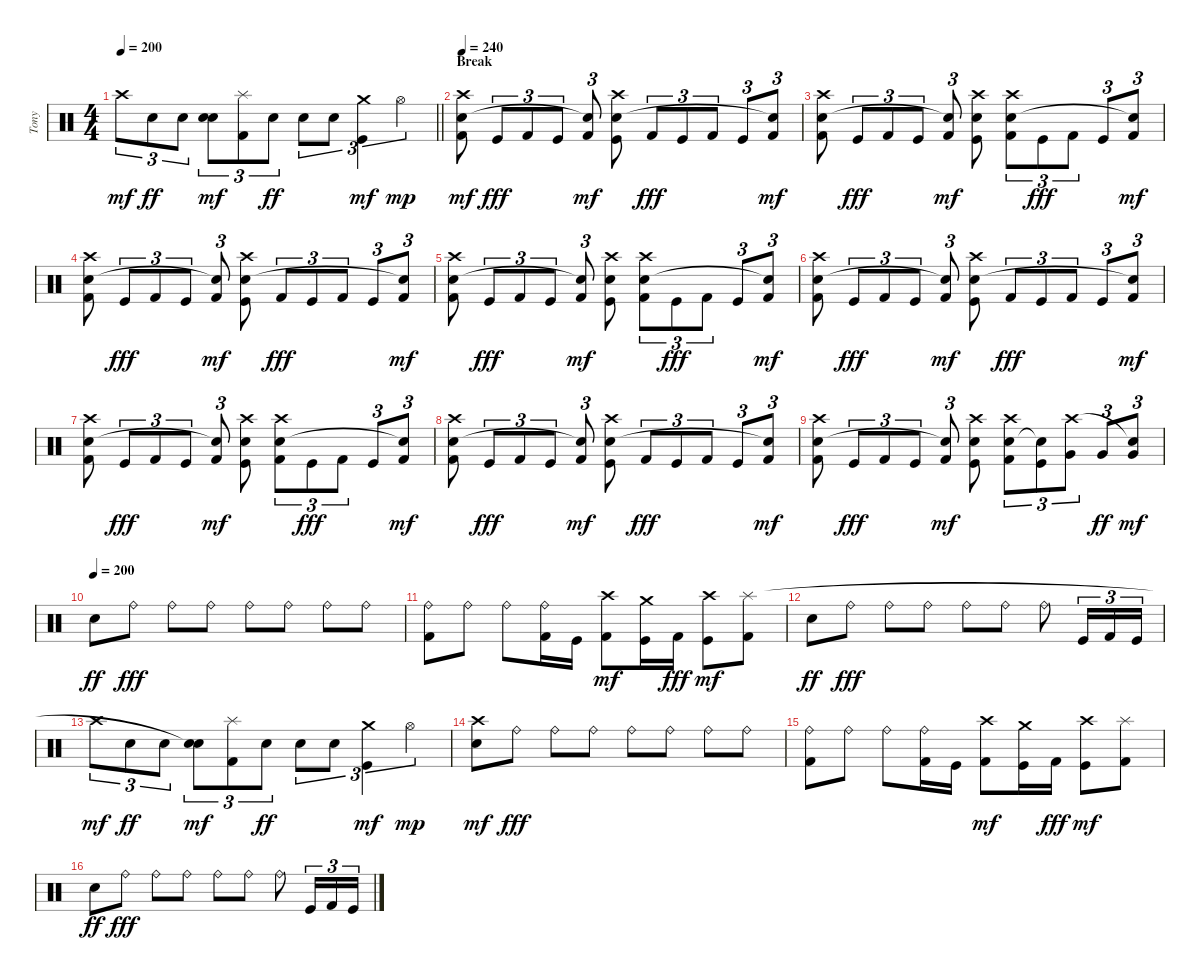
\track ("Tony" "Tony") {instrument percussion}
\staff {score}
\articulation defaults
\ts (4 4)
\tempo 200
\clef neutral
\barLineRight lightlight
\ks c "Crash high (hit)".8{tu (3 2) dy mf} "Snare (hit) 2".8{tu (3 2) dy ff} "Snare (hit) 2".8{tu (3 2)}
("Snare (hit) 2" "Snare (hit)"{t}).8{tu (3 2) dy mf} ("Kick (hit) 2" "Splash (hit)").8{tu (3 2)} "Snare (hit) 2".8{tu (3 2) dy ff} "Snare (hit) 2".8{tu (3 2)} "Snare (hit) 2".8{tu (3 2)} ("Kick (hit)" "Crash medium (hit)").4{tu (3 2) dy mf} "Hi-Hat (open)".4{tu (3 2) dy mp} |
\section ("" "Break")
\tempo 240
("Kick (hit) 2" "Snare (hit) 2" "Crash high (hit)").8{dy mf} "Kick (hit)".8{tu (3 2) dy fff} "Kick (hit) 2".8{tu (3 2)} "Kick (hit)".8{tu (3 2)} ("Kick (hit) 2" "Snare (hit)"{t}).8{tu (3 2) dy mf} ("Kick (hit)" "Snare (hit) 2" "Crash high (hit)").8 "Kick (hit) 2".8{tu (3 2) dy fff} "Kick (hit)".8{tu (3 2)} "Kick (hit) 2".8{tu (3 2)} "Kick (hit)".8{tu (3 2)} ("Kick (hit) 2" "Snare (hit)"{t}).8{tu (3 2) dy mf} |
("Kick (hit) 2" "Snare (hit) 2" "Crash high (hit)").8 "Kick (hit)".8{tu (3 2) dy fff} "Kick (hit) 2".8{tu (3 2)} "Kick (hit)".8{tu (3 2)} ("Kick (hit) 2" "Snare (hit)"{t}).8{tu (3 2) dy mf} ("Kick (hit)" "Snare (hit) 2" "Crash high (hit)").8 ("Kick (hit) 2" "Snare (hit) 2" "Crash high (hit)").8{tu (3 2)} "Kick (hit)".8{tu (3 2) dy fff} "Kick (hit) 2".8{tu (3 2)} "Kick (hit)".8{tu (3 2)} ("Kick (hit) 2" "Snare (hit)"{t}).8{tu (3 2) dy mf} |
("Kick (hit) 2" "Snare (hit) 2" "Crash high (hit)").8 "Kick (hit)".8{tu (3 2) dy fff} "Kick (hit) 2".8{tu (3 2)} "Kick (hit)".8{tu (3 2)} ("Kick (hit) 2" "Snare (hit)"{t}).8{tu (3 2) dy mf} ("Kick (hit)" "Snare (hit) 2" "Crash high (hit)").8 "Kick (hit) 2".8{tu (3 2) dy fff} "Kick (hit)".8{tu (3 2)} "Kick (hit) 2".8{tu (3 2)} "Kick (hit)".8{tu (3 2)} ("Kick (hit) 2" "Snare (hit)"{t}).8{tu (3 2) dy mf} |
("Kick (hit) 2" "Snare (hit) 2" "Crash high (hit)").8 "Kick (hit)".8{tu (3 2) dy fff} "Kick (hit) 2".8{tu (3 2)} "Kick (hit)".8{tu (3 2)} ("Kick (hit) 2" "Snare (hit)"{t}).8{tu (3 2) dy mf} ("Kick (hit)" "Snare (hit) 2" "Crash high (hit)").8 ("Kick (hit) 2" "Snare (hit) 2" "Crash high (hit)").8{tu (3 2)} "Kick (hit)".8{tu (3 2) dy fff} "Kick (hit) 2".8{tu (3 2)} "Kick (hit)".8{tu (3 2)} ("Kick (hit) 2" "Snare (hit)"{t}).8{tu (3 2) dy mf} |
("Kick (hit) 2" "Snare (hit) 2" "Crash high (hit)").8 "Kick (hit)".8{tu (3 2) dy fff} "Kick (hit) 2".8{tu (3 2)} "Kick (hit)".8{tu (3 2)} ("Kick (hit) 2" "Snare (hit)"{t}).8{tu (3 2) dy mf} ("Kick (hit)" "Snare (hit) 2" "Crash high (hit)").8 "Kick (hit) 2".8{tu (3 2) dy fff} "Kick (hit)".8{tu (3 2)} "Kick (hit) 2".8{tu (3 2)} "Kick (hit)".8{tu (3 2)} ("Kick (hit) 2" "Snare (hit)"{t}).8{tu (3 2) dy mf} |
("Kick (hit) 2" "Snare (hit) 2" "Crash high (hit)").8 "Kick (hit)".8{tu (3 2) dy fff} "Kick (hit) 2".8{tu (3 2)} "Kick (hit)".8{tu (3 2)} ("Kick (hit) 2" "Snare (hit)"{t}).8{tu (3 2) dy mf} ("Kick (hit)" "Snare (hit) 2" "Crash high (hit)").8 ("Kick (hit) 2" "Snare (hit) 2" "Crash high (hit)").8{tu (3 2)} "Kick (hit)".8{tu (3 2) dy fff} "Kick (hit) 2".8{tu (3 2)} "Kick (hit)".8{tu (3 2)} ("Kick (hit) 2" "Snare (hit)"{t}).8{tu (3 2) dy mf} |
("Kick (hit) 2" "Snare (hit) 2" "Crash high (hit)").8 "Kick (hit)".8{tu (3 2) dy fff} "Kick (hit) 2".8{tu (3 2)} "Kick (hit)".8{tu (3 2)} ("Kick (hit) 2" "Snare (hit)"{t}).8{tu (3 2) dy mf} ("Kick (hit)" "Snare (hit) 2" "Crash high (hit)").8 "Kick (hit) 2".8{tu (3 2) dy fff} "Kick (hit)".8{tu (3 2)} "Kick (hit) 2".8{tu (3 2)} "Kick (hit)".8{tu (3 2)} ("Kick (hit) 2" "Snare (hit)"{t}).8{tu (3 2) dy mf} |
("Kick (hit) 2" "Snare (hit) 2" "Crash high (hit)").8 "Kick (hit)".8{tu (3 2) dy fff} "Kick (hit) 2".8{tu (3 2)} "Kick (hit)".8{tu (3 2)} ("Kick (hit) 2" "Snare (hit)"{t}).8{tu (3 2) dy mf} ("Kick (hit)" "Snare (hit) 2" "Crash high (hit)").8 ("Kick (hit) 2" "Snare (hit) 2" "Crash high (hit)").8{tu (3 2)} ("Kick (hit)" "Snare (hit)"{t}).8{tu (3 2)} ("Very Low Tom (hit)" "Crash high (hit)").8{tu (3 2)} "Very Low Tom (hit)".8{tu (3 2) dy ff} ("Very Low Tom (hit)" "Snare (hit)"{t}).8{tu (3 2) dy mf} |
\tempo (200)
"Snare (hit) 2".8{dy ff} "Ride (bell)".8{dy fff} "Ride (bell)".8 "Ride (bell)".8 "Ride (bell)".8 "Ride (bell)".8 "Ride (bell)".8 "Ride (bell)".8 |
("Kick (hit) 2" "Ride (bell)").8 "Ride (bell)".8 "Ride (bell)".8 ("Kick (hit) 2" "Ride (bell)").16 "Kick (hit)".16 ("Kick (hit) 2" "Crash high (hit)").8{dy mf} ("Kick (hit)" "Crash medium (hit)").16 "Kick (hit) 2".16{dy fff} ("Kick (hit)" "Crash high (hit)").8{dy mf} ("Kick (hit) 2" "Splash (hit)").8 |
"Snare (hit) 2".8{dy ff} "Ride (bell)".8{dy fff} "Ride (bell)".8 "Ride (bell)".8 "Ride (bell)".8 "Ride (bell)".8 "Ride (bell)".8 "Kick (hit)".16{tu (3 2)} "Kick (hit) 2".16{tu (3 2)} "Kick (hit)".16{tu (3 2)} |
"Crash high (hit)".8{tu (3 2) dy mf} "Snare (hit) 2".8{tu (3 2) dy ff} "Snare (hit) 2".8{tu (3 2)} ("Snare (hit) 2" "Snare (hit)"{t}).8{tu (3 2) dy mf} ("Kick (hit) 2" "Splash (hit)").8{tu (3 2)} "Snare (hit) 2".8{tu (3 2) dy ff} "Snare (hit) 2".8{tu (3 2)} "Snare (hit) 2".8{tu (3 2)} ("Kick (hit)" "Crash medium (hit)").4{tu (3 2) dy mf} "Hi-Hat (open)".4{tu (3 2) dy mp} |
("Snare (hit) 2" "Crash high (hit)").8{dy mf} "Ride (bell)".8{dy fff} "Ride (bell)".8 "Ride (bell)".8 "Ride (bell)".8 "Ride (bell)".8 "Ride (bell)".8 "Ride (bell)".8 |
("Kick (hit) 2" "Ride (bell)").8 "Ride (bell)".8 "Ride (bell)".8 ("Kick (hit) 2" "Ride (bell)").16 "Kick (hit)".16 ("Kick (hit) 2" "Crash high (hit)").8{dy mf} ("Kick (hit)" "Crash medium (hit)").16 "Kick (hit) 2".16{dy fff} ("Kick (hit)" "Crash high (hit)").8{dy mf} ("Kick (hit) 2" "Splash (hit)").8 |
"Snare (hit) 2".8{dy ff} "Ride (bell)".8{dy fff} "Ride (bell)".8 "Ride (bell)".8 "Ride (bell)".8 "Ride (bell)".8 "Ride (bell)".8 "Kick (hit)".16{tu (3 2)} "Kick (hit) 2".16{tu (3 2)} "Kick (hit)".16{tu (3 2)}
